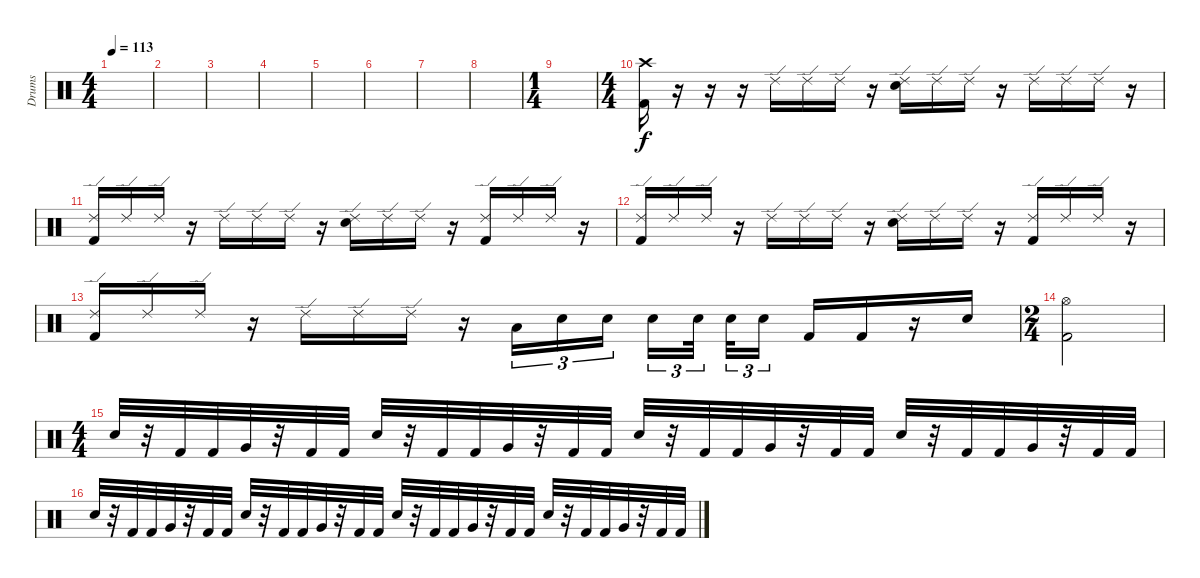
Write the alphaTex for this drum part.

\track ("Drums" "Drums") {instrument percussion}
\staff {score}
\articulation defaults
\ts (4 4)
\tempo 113
\clef neutral
\ks c
|
|
|
|
|
|
|
|
\ts (1 4)
|
\ts (4 4)
("Kick (hit) 2" "Crash high (hit)").16 r.16 r.16 r.16 "Ride (edge) 2".16 "Ride (edge) 2".16 "Ride (edge) 2".16 r.16 ("Electric Snare (hit)" "Ride (edge) 2").16 "Ride (edge) 2".16 "Ride (edge) 2".16 r.16 "Ride (edge) 2".16 "Ride (edge) 2".16 "Ride (edge) 2".16 r.16 |
("Kick (hit) 2" "Ride (edge) 2").16 "Ride (edge) 2".16 "Ride (edge) 2".16 r.16 "Ride (edge) 2".16 "Ride (edge) 2".16 "Ride (edge) 2".16 r.16 ("Electric Snare (hit)" "Ride (edge) 2").16 "Ride (edge) 2".16 "Ride (edge) 2".16 r.16 ("Kick (hit) 2" "Ride (edge) 2").16 "Ride (edge) 2".16 "Ride (edge) 2".16 r.16 |
("Kick (hit) 2" "Ride (edge) 2").16 "Ride (edge) 2".16 "Ride (edge) 2".16 r.16 "Ride (edge) 2".16 "Ride (edge) 2".16 "Ride (edge) 2".16 r.16 ("Electric Snare (hit)" "Ride (edge) 2").16 "Ride (edge) 2".16 "Ride (edge) 2".16 r.16 ("Kick (hit) 2" "Ride (edge) 2").16 "Ride (edge) 2".16 "Ride (edge) 2".16 r.16 |
("Kick (hit) 2" "Ride (edge) 2").16 "Ride (edge) 2".16 "Ride (edge) 2".16 r.16 "Ride (edge) 2".16 "Ride (edge) 2".16 "Ride (edge) 2".16 r.16 "Low Tom (hit)".16{tu (3 2)} "Electric Snare (hit)".16{tu (3 2)} "Electric Snare (hit)".16{tu (3 2)} "Electric Snare (hit)".16{tu (3 2)} "Electric Snare (hit)".32{tu (3 2)} "Electric Snare (hit)".32{tu (3 2)} "Electric Snare (hit)".16{tu (3 2)} "Kick (hit) 2".16 "Kick (hit) 2".16 r.16 "Electric Snare (hit)".16 |
\ts (2 4)
("Kick (hit) 2" "Hi-Hat (open)").2 |
\ts (4 4)
"Electric Snare (hit)".32 r.32 "Kick (hit) 2".32 "Kick (hit) 2".32 "Very Low Tom (hit)".32 r.32 "Kick (hit) 2".32 "Kick (hit) 2".32 "Electric Snare (hit)".32 r.32 "Kick (hit) 2".32 "Kick (hit) 2".32 "Very Low Tom (hit)".32 r.32 "Kick (hit) 2".32 "Kick (hit) 2".32 "Electric Snare (hit)".32 r.32 "Kick (hit) 2".32 "Kick (hit) 2".32 "Very Low Tom (hit)".32 r.32 "Kick (hit) 2".32 "Kick (hit) 2".32 "Electric Snare (hit)".32 r.32 "Kick (hit) 2".32 "Kick (hit) 2".32 "Very Low Tom (hit)".32 r.32 "Kick (hit) 2".32 "Kick (hit) 2".32 |
"Electric Snare (hit)".32 r.32 "Kick (hit) 2".32 "Kick (hit) 2".32 "Very Low Tom (hit)".32 r.32 "Kick (hit) 2".32 "Kick (hit) 2".32 "Electric Snare (hit)".32 r.32 "Kick (hit) 2".32 "Kick (hit) 2".32 "Very Low Tom (hit)".32 r.32 "Kick (hit) 2".32 "Kick (hit) 2".32 "Electric Snare (hit)".32 r.32 "Kick (hit) 2".32 "Kick (hit) 2".32 "Very Low Tom (hit)".32 r.32 "Kick (hit) 2".32 "Kick (hit) 2".32 "Electric Snare (hit)".32 r.32 "Kick (hit) 2".32 "Kick (hit) 2".32 "Very Low Tom (hit)".32 r.32 "Kick (hit) 2".32 "Kick (hit) 2".32
